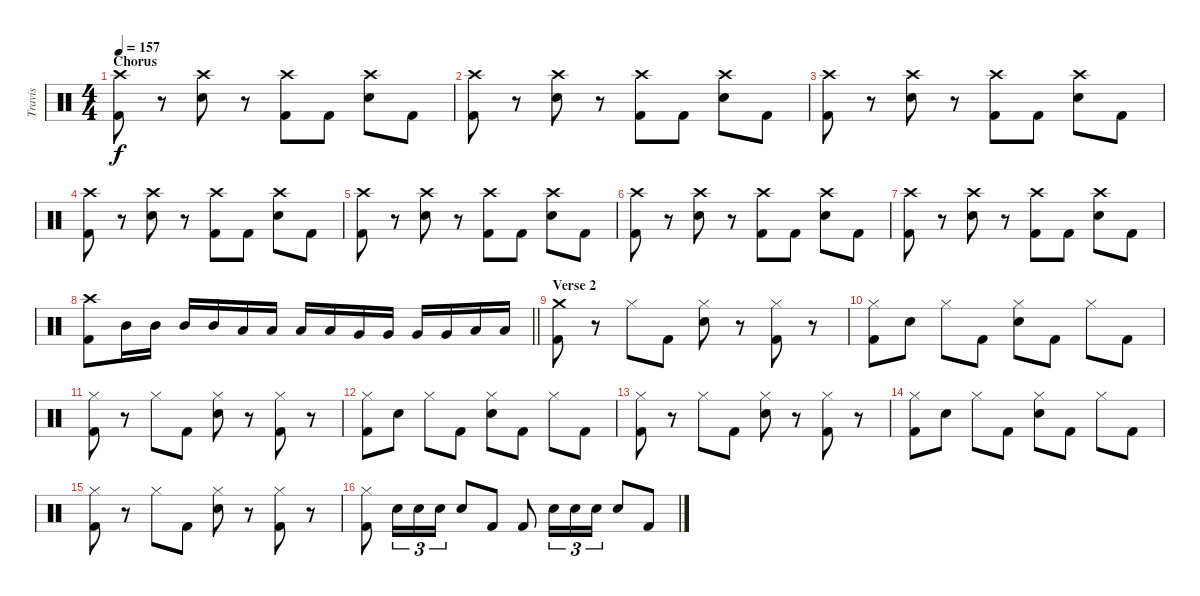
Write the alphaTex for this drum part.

\track ("Travis" "Travis") {instrument percussion}
\staff {score}
\articulation defaults
\ts (4 4)
\section ("" "Chorus")
\tempo 157
\clef neutral
\ks c
("Crash high (hit)" "Kick (hit) 2").8{dy f} r.8 ("Crash high (hit)" "Electric Snare (hit)").8 r.8 ("Crash high (hit)" "Kick (hit) 2").8 "Kick (hit) 2".8 ("Crash high (hit)" "Electric Snare (hit)").8 "Kick (hit) 2".8 |
("Crash high (hit)" "Kick (hit) 2").8 r.8 ("Crash high (hit)" "Electric Snare (hit)").8 r.8 ("Crash high (hit)" "Kick (hit) 2").8 "Kick (hit) 2".8 ("Crash high (hit)" "Electric Snare (hit)").8 "Kick (hit) 2".8 |
("Crash high (hit)" "Kick (hit) 2").8 r.8 ("Crash high (hit)" "Electric Snare (hit)").8 r.8 ("Crash high (hit)" "Kick (hit) 2").8 "Kick (hit) 2".8 ("Crash high (hit)" "Electric Snare (hit)").8 "Kick (hit) 2".8 |
("Crash high (hit)" "Kick (hit) 2").8 r.8 ("Crash high (hit)" "Electric Snare (hit)").8 r.8 ("Crash high (hit)" "Kick (hit) 2").8 "Kick (hit) 2".8 ("Crash high (hit)" "Electric Snare (hit)").8 "Kick (hit) 2".8 |
("Crash high (hit)" "Kick (hit) 2").8 r.8 ("Crash high (hit)" "Electric Snare (hit)").8 r.8 ("Crash high (hit)" "Kick (hit) 2").8 "Kick (hit) 2".8 ("Crash high (hit)" "Electric Snare (hit)").8 "Kick (hit) 2".8 |
("Crash high (hit)" "Kick (hit) 2").8 r.8 ("Crash high (hit)" "Electric Snare (hit)").8 r.8 ("Crash high (hit)" "Kick (hit) 2").8 "Kick (hit) 2".8 ("Crash high (hit)" "Electric Snare (hit)").8 "Kick (hit) 2".8 |
("Crash high (hit)" "Kick (hit) 2").8 r.8 ("Crash high (hit)" "Electric Snare (hit)").8 r.8 ("Crash high (hit)" "Kick (hit) 2").8 "Kick (hit) 2".8 ("Crash high (hit)" "Electric Snare (hit)").8 "Kick (hit) 2".8 |
\barLineRight lightlight
("Crash high (hit)" "Kick (hit) 2").8 "Mid Tom (hit)".16 "Mid Tom (hit)".16 "Mid Tom (hit)".16 "Mid Tom (hit)".16 "Low Tom (hit)".16 "Low Tom (hit)".16 "Low Tom (hit)".16 "Low Tom (hit)".16 "Very Low Tom (hit)".16 "Very Low Tom (hit)".16 "Very Low Tom (hit)".16 "Very Low Tom (hit)".16 "Low Floor Tom (hit)".16 "Low Floor Tom (hit)".16 |
\section ("" "Verse 2")
("Crash medium (hit)" "Kick (hit) 2").8 r.8 "Hi-Hat (closed)".8 "Kick (hit) 2".8 ("Hi-Hat (closed)" "Electric Snare (hit)").8 r.8 ("Hi-Hat (closed)" "Kick (hit) 2").8 r.8 |
("Hi-Hat (closed)" "Kick (hit) 2").8 "Electric Snare (hit)".8 "Hi-Hat (closed)".8 "Kick (hit) 2".8 ("Hi-Hat (closed)" "Electric Snare (hit)").8 "Kick (hit) 2".8 "Hi-Hat (closed)".8 "Kick (hit) 2".8 |
("Hi-Hat (closed)" "Kick (hit) 2").8 r.8 "Hi-Hat (closed)".8 "Kick (hit) 2".8 ("Hi-Hat (closed)" "Electric Snare (hit)").8 r.8 ("Hi-Hat (closed)" "Kick (hit) 2").8 r.8 |
("Hi-Hat (closed)" "Kick (hit) 2").8 "Electric Snare (hit)".8 "Hi-Hat (closed)".8 "Kick (hit) 2".8 ("Hi-Hat (closed)" "Electric Snare (hit)").8 "Kick (hit) 2".8 "Hi-Hat (closed)".8 "Kick (hit) 2".8 |
("Hi-Hat (closed)" "Kick (hit) 2").8 r.8 "Hi-Hat (closed)".8 "Kick (hit) 2".8 ("Hi-Hat (closed)" "Electric Snare (hit)").8 r.8 ("Hi-Hat (closed)" "Kick (hit) 2").8 r.8 |
("Hi-Hat (closed)" "Kick (hit) 2").8 "Electric Snare (hit)".8 "Hi-Hat (closed)".8 "Kick (hit) 2".8 ("Hi-Hat (closed)" "Electric Snare (hit)").8 "Kick (hit) 2".8 "Hi-Hat (closed)".8 "Kick (hit) 2".8 |
("Hi-Hat (closed)" "Kick (hit) 2").8 r.8 "Hi-Hat (closed)".8 "Kick (hit) 2".8 ("Hi-Hat (closed)" "Electric Snare (hit)").8 r.8 ("Hi-Hat (closed)" "Kick (hit) 2").8 r.8 |
("Hi-Hat (closed)" "Kick (hit) 2").8 "Electric Snare (hit)".16{tu (3 2)} "Electric Snare (hit)".16{tu (3 2)} "Electric Snare (hit)".16{tu (3 2)} "Electric Snare (hit)".8 "Kick (hit) 2".8 "Kick (hit) 2".8 "Electric Snare (hit)".16{tu (3 2)} "Electric Snare (hit)".16{tu (3 2)} "Electric Snare (hit)".16{tu (3 2)} "Electric Snare (hit)".8 "Kick (hit) 2".8
